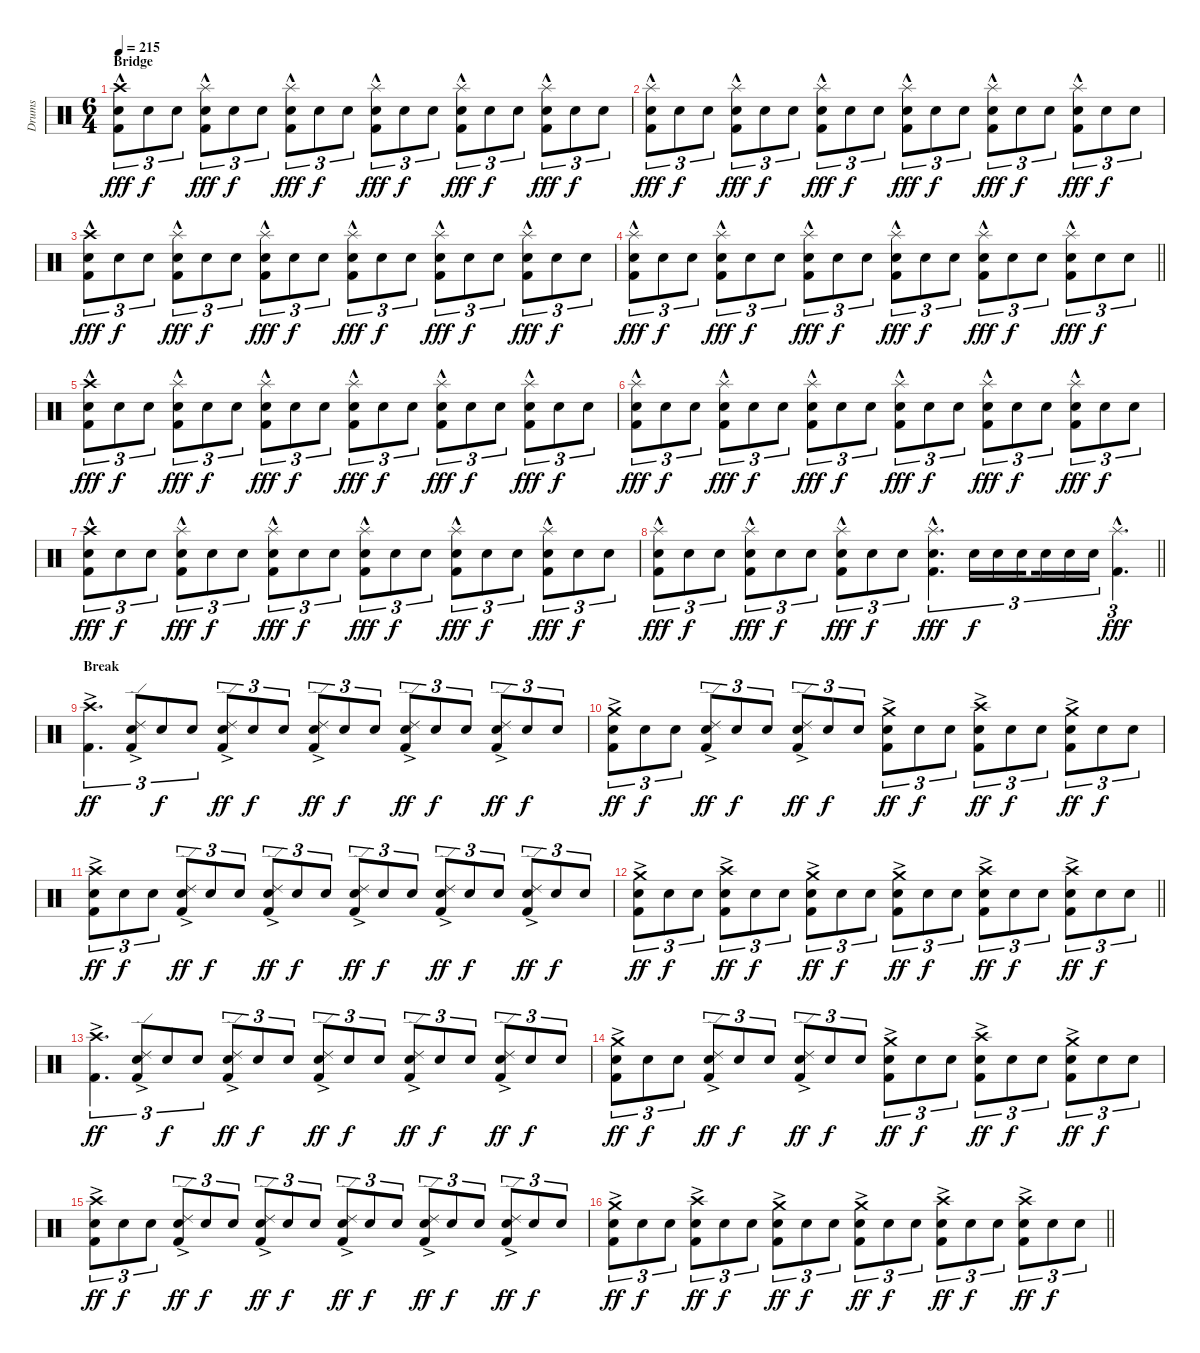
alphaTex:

\track ("Drums" "Drums") {instrument percussion}
\staff {score}
\articulation defaults
\ts (6 4)
\section ("" "Bridge")
\tempo 215
\clef neutral
\ks c
("Kick (hit) 2"{hac} "Snare (hit) 2" "Crash high (hit)").8{tu (3 2) dy fff} "Snare (hit) 2".8{tu (3 2) dy f} "Snare (hit) 2".8{tu (3 2)} ("Kick (hit) 2"{hac} "Snare (hit) 2" "Splash (hit)").8{tu (3 2) dy fff} "Snare (hit) 2".8{tu (3 2) dy f} "Snare (hit) 2".8{tu (3 2)} ("Kick (hit) 2"{hac} "Snare (hit) 2" "Splash (hit)").8{tu (3 2) dy fff} "Snare (hit) 2".8{tu (3 2) dy f} "Snare (hit) 2".8{tu (3 2)} ("Kick (hit) 2"{hac} "Snare (hit) 2" "Splash (hit)").8{tu (3 2) dy fff} "Snare (hit) 2".8{tu (3 2) dy f} "Snare (hit) 2".8{tu (3 2)} ("Kick (hit) 2"{hac} "Snare (hit) 2" "Splash (hit)").8{tu (3 2) dy fff} "Snare (hit) 2".8{tu (3 2) dy f} "Snare (hit) 2".8{tu (3 2)} ("Kick (hit) 2"{hac} "Snare (hit) 2" "Splash (hit)").8{tu (3 2) dy fff} "Snare (hit) 2".8{tu (3 2) dy f} "Snare (hit) 2".8{tu (3 2)} |
("Kick (hit) 2"{hac} "Snare (hit) 2" "Splash (hit)").8{tu (3 2) dy fff} "Snare (hit) 2".8{tu (3 2) dy f} "Snare (hit) 2".8{tu (3 2)} ("Kick (hit) 2"{hac} "Snare (hit) 2" "Splash (hit)").8{tu (3 2) dy fff} "Snare (hit) 2".8{tu (3 2) dy f} "Snare (hit) 2".8{tu (3 2)} ("Kick (hit) 2"{hac} "Snare (hit) 2" "Splash (hit)").8{tu (3 2) dy fff} "Snare (hit) 2".8{tu (3 2) dy f} "Snare (hit) 2".8{tu (3 2)} ("Kick (hit) 2"{hac} "Snare (hit) 2" "Splash (hit)").8{tu (3 2) dy fff} "Snare (hit) 2".8{tu (3 2) dy f} "Snare (hit) 2".8{tu (3 2)} ("Kick (hit) 2"{hac} "Snare (hit) 2" "Splash (hit)").8{tu (3 2) dy fff} "Snare (hit) 2".8{tu (3 2) dy f} "Snare (hit) 2".8{tu (3 2)} ("Kick (hit) 2"{hac} "Snare (hit) 2" "Splash (hit)").8{tu (3 2) dy fff} "Snare (hit) 2".8{tu (3 2) dy f} "Snare (hit) 2".8{tu (3 2)} |
("Kick (hit) 2"{hac} "Snare (hit) 2" "Crash high (hit)").8{tu (3 2) dy fff} "Snare (hit) 2".8{tu (3 2) dy f} "Snare (hit) 2".8{tu (3 2)} ("Kick (hit) 2"{hac} "Snare (hit) 2" "Splash (hit)").8{tu (3 2) dy fff} "Snare (hit) 2".8{tu (3 2) dy f} "Snare (hit) 2".8{tu (3 2)} ("Kick (hit) 2"{hac} "Snare (hit) 2" "Splash (hit)").8{tu (3 2) dy fff} "Snare (hit) 2".8{tu (3 2) dy f} "Snare (hit) 2".8{tu (3 2)} ("Kick (hit) 2"{hac} "Snare (hit) 2" "Splash (hit)").8{tu (3 2) dy fff} "Snare (hit) 2".8{tu (3 2) dy f} "Snare (hit) 2".8{tu (3 2)} ("Kick (hit) 2"{hac} "Snare (hit) 2" "Splash (hit)").8{tu (3 2) dy fff} "Snare (hit) 2".8{tu (3 2) dy f} "Snare (hit) 2".8{tu (3 2)} ("Kick (hit) 2"{hac} "Snare (hit) 2" "Splash (hit)").8{tu (3 2) dy fff} "Snare (hit) 2".8{tu (3 2) dy f} "Snare (hit) 2".8{tu (3 2)} |
\barLineRight lightlight
("Kick (hit) 2"{hac} "Snare (hit) 2" "Splash (hit)").8{tu (3 2) dy fff} "Snare (hit) 2".8{tu (3 2) dy f} "Snare (hit) 2".8{tu (3 2)} ("Kick (hit) 2"{hac} "Snare (hit) 2" "Splash (hit)").8{tu (3 2) dy fff} "Snare (hit) 2".8{tu (3 2) dy f} "Snare (hit) 2".8{tu (3 2)} ("Kick (hit) 2"{hac} "Snare (hit) 2" "Splash (hit)").8{tu (3 2) dy fff} "Snare (hit) 2".8{tu (3 2) dy f} "Snare (hit) 2".8{tu (3 2)} ("Kick (hit) 2"{hac} "Snare (hit) 2" "Splash (hit)").8{tu (3 2) dy fff} "Snare (hit) 2".8{tu (3 2) dy f} "Snare (hit) 2".8{tu (3 2)} ("Kick (hit) 2"{hac} "Snare (hit) 2" "Splash (hit)").8{tu (3 2) dy fff} "Snare (hit) 2".8{tu (3 2) dy f} "Snare (hit) 2".8{tu (3 2)} ("Kick (hit) 2"{hac} "Snare (hit) 2" "Splash (hit)").8{tu (3 2) dy fff} "Snare (hit) 2".8{tu (3 2) dy f} "Snare (hit) 2".8{tu (3 2)} |
\section ("" "")
("Kick (hit) 2"{hac} "Snare (hit) 2" "Crash high (hit)").8{tu (3 2) dy fff} "Snare (hit) 2".8{tu (3 2) dy f} "Snare (hit) 2".8{tu (3 2)} ("Kick (hit) 2"{hac} "Snare (hit) 2" "Splash (hit)").8{tu (3 2) dy fff} "Snare (hit) 2".8{tu (3 2) dy f} "Snare (hit) 2".8{tu (3 2)} ("Kick (hit) 2"{hac} "Snare (hit) 2" "Splash (hit)").8{tu (3 2) dy fff} "Snare (hit) 2".8{tu (3 2) dy f} "Snare (hit) 2".8{tu (3 2)} ("Kick (hit) 2"{hac} "Snare (hit) 2" "Splash (hit)").8{tu (3 2) dy fff} "Snare (hit) 2".8{tu (3 2) dy f} "Snare (hit) 2".8{tu (3 2)} ("Kick (hit) 2"{hac} "Snare (hit) 2" "Splash (hit)").8{tu (3 2) dy fff} "Snare (hit) 2".8{tu (3 2) dy f} "Snare (hit) 2".8{tu (3 2)} ("Kick (hit) 2"{hac} "Snare (hit) 2" "Splash (hit)").8{tu (3 2) dy fff} "Snare (hit) 2".8{tu (3 2) dy f} "Snare (hit) 2".8{tu (3 2)} |
("Kick (hit) 2"{hac} "Snare (hit) 2" "Splash (hit)").8{tu (3 2) dy fff} "Snare (hit) 2".8{tu (3 2) dy f} "Snare (hit) 2".8{tu (3 2)} ("Kick (hit) 2"{hac} "Snare (hit) 2" "Splash (hit)").8{tu (3 2) dy fff} "Snare (hit) 2".8{tu (3 2) dy f} "Snare (hit) 2".8{tu (3 2)} ("Kick (hit) 2"{hac} "Snare (hit) 2" "Splash (hit)").8{tu (3 2) dy fff} "Snare (hit) 2".8{tu (3 2) dy f} "Snare (hit) 2".8{tu (3 2)} ("Kick (hit) 2"{hac} "Snare (hit) 2" "Splash (hit)").8{tu (3 2) dy fff} "Snare (hit) 2".8{tu (3 2) dy f} "Snare (hit) 2".8{tu (3 2)} ("Kick (hit) 2"{hac} "Snare (hit) 2" "Splash (hit)").8{tu (3 2) dy fff} "Snare (hit) 2".8{tu (3 2) dy f} "Snare (hit) 2".8{tu (3 2)} ("Kick (hit) 2"{hac} "Snare (hit) 2" "Splash (hit)").8{tu (3 2) dy fff} "Snare (hit) 2".8{tu (3 2) dy f} "Snare (hit) 2".8{tu (3 2)} |
("Kick (hit) 2"{hac} "Snare (hit) 2" "Crash high (hit)").8{tu (3 2) dy fff} "Snare (hit) 2".8{tu (3 2) dy f} "Snare (hit) 2".8{tu (3 2)} ("Kick (hit) 2"{hac} "Snare (hit) 2" "Splash (hit)").8{tu (3 2) dy fff} "Snare (hit) 2".8{tu (3 2) dy f} "Snare (hit) 2".8{tu (3 2)} ("Kick (hit) 2"{hac} "Snare (hit) 2" "Splash (hit)").8{tu (3 2) dy fff} "Snare (hit) 2".8{tu (3 2) dy f} "Snare (hit) 2".8{tu (3 2)} ("Kick (hit) 2"{hac} "Snare (hit) 2" "Splash (hit)").8{tu (3 2) dy fff} "Snare (hit) 2".8{tu (3 2) dy f} "Snare (hit) 2".8{tu (3 2)} ("Kick (hit) 2"{hac} "Snare (hit) 2" "Splash (hit)").8{tu (3 2) dy fff} "Snare (hit) 2".8{tu (3 2) dy f} "Snare (hit) 2".8{tu (3 2)} ("Kick (hit) 2"{hac} "Snare (hit) 2" "Splash (hit)").8{tu (3 2) dy fff} "Snare (hit) 2".8{tu (3 2) dy f} "Snare (hit) 2".8{tu (3 2)} |
\barLineRight lightlight
("Kick (hit) 2"{hac} "Snare (hit) 2" "Splash (hit)").8{tu (3 2) dy fff} "Snare (hit) 2".8{tu (3 2) dy f} "Snare (hit) 2".8{tu (3 2)} ("Kick (hit) 2"{hac} "Snare (hit) 2" "Splash (hit)").8{tu (3 2) dy fff} "Snare (hit) 2".8{tu (3 2) dy f} "Snare (hit) 2".8{tu (3 2)} ("Kick (hit) 2"{hac} "Snare (hit) 2" "Splash (hit)").8{tu (3 2) dy fff} "Snare (hit) 2".8{tu (3 2) dy f} "Snare (hit) 2".8{tu (3 2)} ("Kick (hit) 2"{hac} "Snare (hit) 2" "Splash (hit)").4{d tu (3 2) dy fff} "Snare (hit) 2".16{tu (3 2) dy f} "Snare (hit) 2".16{tu (3 2)} "Snare (hit) 2".16{tu (3 2) beam splitsecondary} "Snare (hit) 2".16{tu (3 2)} "Snare (hit) 2".16{tu (3 2)} "Snare (hit) 2".16{tu (3 2)} ("Kick (hit) 2"{hac} "Splash (hit)").4{d tu (3 2) dy fff} |
\section ("" "Break")
("Kick (hit) 2"{ac} "Crash high (hit)").4{d tu (3 2) dy ff} ("Kick (hit) 2"{ac} "Snare (hit) 2" "Ride (edge) 2").8{tu (3 2)} "Snare (hit) 2".8{tu (3 2) dy f} "Snare (hit) 2".8{tu (3 2)} ("Kick (hit) 2"{ac} "Snare (hit) 2" "Ride (edge) 2").8{tu (3 2) dy ff} "Snare (hit) 2".8{tu (3 2) dy f} "Snare (hit) 2".8{tu (3 2)} ("Kick (hit) 2"{ac} "Snare (hit) 2" "Ride (edge) 2").8{tu (3 2) dy ff} "Snare (hit) 2".8{tu (3 2) dy f} "Snare (hit) 2".8{tu (3 2)} ("Kick (hit) 2"{ac} "Snare (hit) 2" "Ride (edge) 2").8{tu (3 2) dy ff} "Snare (hit) 2".8{tu (3 2) dy f} "Snare (hit) 2".8{tu (3 2)} ("Kick (hit) 2"{ac} "Snare (hit) 2" "Ride (edge) 2").8{tu (3 2) dy ff} "Snare (hit) 2".8{tu (3 2) dy f} "Snare (hit) 2".8{tu (3 2)} |
("Kick (hit) 2"{ac} "Snare (hit) 2" "Crash medium (hit)").8{tu (3 2) dy ff} "Snare (hit) 2".8{tu (3 2) dy f} "Snare (hit) 2".8{tu (3 2)} ("Kick (hit) 2"{ac} "Snare (hit) 2" "Ride (edge) 2").8{tu (3 2) dy ff} "Snare (hit) 2".8{tu (3 2) dy f} "Snare (hit) 2".8{tu (3 2)} ("Kick (hit) 2"{ac} "Snare (hit) 2" "Ride (edge) 2").8{tu (3 2) dy ff} "Snare (hit) 2".8{tu (3 2) dy f} "Snare (hit) 2".8{tu (3 2)} ("Kick (hit) 2"{ac} "Snare (hit) 2" "Crash medium (hit)").8{tu (3 2) dy ff} "Snare (hit) 2".8{tu (3 2) dy f} "Snare (hit) 2".8{tu (3 2)} ("Kick (hit) 2"{ac} "Snare (hit) 2" "Crash high (hit)").8{tu (3 2) dy ff} "Snare (hit) 2".8{tu (3 2) dy f} "Snare (hit) 2".8{tu (3 2)} ("Kick (hit) 2"{ac} "Snare (hit) 2" "Crash medium (hit)").8{tu (3 2) dy ff} "Snare (hit) 2".8{tu (3 2) dy f} "Snare (hit) 2".8{tu (3 2)} |
("Kick (hit) 2"{ac} "Snare (hit) 2" "Crash high (hit)").8{tu (3 2) dy ff} "Snare (hit) 2".8{tu (3 2) dy f} "Snare (hit) 2".8{tu (3 2)} ("Kick (hit) 2"{ac} "Snare (hit) 2" "Ride (edge) 2").8{tu (3 2) dy ff} "Snare (hit) 2".8{tu (3 2) dy f} "Snare (hit) 2".8{tu (3 2)} ("Kick (hit) 2"{ac} "Snare (hit) 2" "Ride (edge) 2").8{tu (3 2) dy ff} "Snare (hit) 2".8{tu (3 2) dy f} "Snare (hit) 2".8{tu (3 2)} ("Kick (hit) 2"{ac} "Snare (hit) 2" "Ride (edge) 2").8{tu (3 2) dy ff} "Snare (hit) 2".8{tu (3 2) dy f} "Snare (hit) 2".8{tu (3 2)} ("Kick (hit) 2"{ac} "Snare (hit) 2" "Ride (edge) 2").8{tu (3 2) dy ff} "Snare (hit) 2".8{tu (3 2) dy f} "Snare (hit) 2".8{tu (3 2)} ("Kick (hit) 2"{ac} "Snare (hit) 2" "Ride (edge) 2").8{tu (3 2) dy ff} "Snare (hit) 2".8{tu (3 2) dy f} "Snare (hit) 2".8{tu (3 2)} |
\barLineRight lightlight
("Kick (hit) 2"{ac} "Snare (hit) 2" "Crash medium (hit)").8{tu (3 2) dy ff} "Snare (hit) 2".8{tu (3 2) dy f} "Snare (hit) 2".8{tu (3 2)} ("Kick (hit) 2"{ac} "Snare (hit) 2" "Crash high (hit)").8{tu (3 2) dy ff} "Snare (hit) 2".8{tu (3 2) dy f} "Snare (hit) 2".8{tu (3 2)} ("Kick (hit) 2"{ac} "Snare (hit) 2" "Crash medium (hit)").8{tu (3 2) dy ff} "Snare (hit) 2".8{tu (3 2) dy f} "Snare (hit) 2".8{tu (3 2)} ("Kick (hit) 2"{ac} "Snare (hit) 2" "Crash medium (hit)").8{tu (3 2) dy ff} "Snare (hit) 2".8{tu (3 2) dy f} "Snare (hit) 2".8{tu (3 2)} ("Kick (hit) 2"{ac} "Snare (hit) 2" "Crash high (hit)").8{tu (3 2) dy ff} "Snare (hit) 2".8{tu (3 2) dy f} "Snare (hit) 2".8{tu (3 2)} ("Kick (hit) 2"{ac} "Snare (hit) 2" "Crash high (hit)").8{tu (3 2) dy ff} "Snare (hit) 2".8{tu (3 2) dy f} "Snare (hit) 2".8{tu (3 2)} |
\section ("" "")
("Kick (hit) 2"{ac} "Crash high (hit)").4{d tu (3 2) dy ff} ("Kick (hit) 2"{ac} "Snare (hit) 2" "Ride (edge) 2").8{tu (3 2)} "Snare (hit) 2".8{tu (3 2) dy f} "Snare (hit) 2".8{tu (3 2)} ("Kick (hit) 2"{ac} "Snare (hit) 2" "Ride (edge) 2").8{tu (3 2) dy ff} "Snare (hit) 2".8{tu (3 2) dy f} "Snare (hit) 2".8{tu (3 2)} ("Kick (hit) 2"{ac} "Snare (hit) 2" "Ride (edge) 2").8{tu (3 2) dy ff} "Snare (hit) 2".8{tu (3 2) dy f} "Snare (hit) 2".8{tu (3 2)} ("Kick (hit) 2"{ac} "Snare (hit) 2" "Ride (edge) 2").8{tu (3 2) dy ff} "Snare (hit) 2".8{tu (3 2) dy f} "Snare (hit) 2".8{tu (3 2)} ("Kick (hit) 2"{ac} "Snare (hit) 2" "Ride (edge) 2").8{tu (3 2) dy ff} "Snare (hit) 2".8{tu (3 2) dy f} "Snare (hit) 2".8{tu (3 2)} |
("Kick (hit) 2"{ac} "Snare (hit) 2" "Crash medium (hit)").8{tu (3 2) dy ff} "Snare (hit) 2".8{tu (3 2) dy f} "Snare (hit) 2".8{tu (3 2)} ("Kick (hit) 2"{ac} "Snare (hit) 2" "Ride (edge) 2").8{tu (3 2) dy ff} "Snare (hit) 2".8{tu (3 2) dy f} "Snare (hit) 2".8{tu (3 2)} ("Kick (hit) 2"{ac} "Snare (hit) 2" "Ride (edge) 2").8{tu (3 2) dy ff} "Snare (hit) 2".8{tu (3 2) dy f} "Snare (hit) 2".8{tu (3 2)} ("Kick (hit) 2"{ac} "Snare (hit) 2" "Crash medium (hit)").8{tu (3 2) dy ff} "Snare (hit) 2".8{tu (3 2) dy f} "Snare (hit) 2".8{tu (3 2)} ("Kick (hit) 2"{ac} "Snare (hit) 2" "Crash high (hit)").8{tu (3 2) dy ff} "Snare (hit) 2".8{tu (3 2) dy f} "Snare (hit) 2".8{tu (3 2)} ("Kick (hit) 2"{ac} "Snare (hit) 2" "Crash medium (hit)").8{tu (3 2) dy ff} "Snare (hit) 2".8{tu (3 2) dy f} "Snare (hit) 2".8{tu (3 2)} |
("Kick (hit) 2"{ac} "Snare (hit) 2" "Crash high (hit)").8{tu (3 2) dy ff} "Snare (hit) 2".8{tu (3 2) dy f} "Snare (hit) 2".8{tu (3 2)} ("Kick (hit) 2"{ac} "Snare (hit) 2" "Ride (edge) 2").8{tu (3 2) dy ff} "Snare (hit) 2".8{tu (3 2) dy f} "Snare (hit) 2".8{tu (3 2)} ("Kick (hit) 2"{ac} "Snare (hit) 2" "Ride (edge) 2").8{tu (3 2) dy ff} "Snare (hit) 2".8{tu (3 2) dy f} "Snare (hit) 2".8{tu (3 2)} ("Kick (hit) 2"{ac} "Snare (hit) 2" "Ride (edge) 2").8{tu (3 2) dy ff} "Snare (hit) 2".8{tu (3 2) dy f} "Snare (hit) 2".8{tu (3 2)} ("Kick (hit) 2"{ac} "Snare (hit) 2" "Ride (edge) 2").8{tu (3 2) dy ff} "Snare (hit) 2".8{tu (3 2) dy f} "Snare (hit) 2".8{tu (3 2)} ("Kick (hit) 2"{ac} "Snare (hit) 2" "Ride (edge) 2").8{tu (3 2) dy ff} "Snare (hit) 2".8{tu (3 2) dy f} "Snare (hit) 2".8{tu (3 2)} |
\barLineRight lightlight
("Kick (hit) 2"{ac} "Snare (hit) 2" "Crash medium (hit)").8{tu (3 2) dy ff} "Snare (hit) 2".8{tu (3 2) dy f} "Snare (hit) 2".8{tu (3 2)} ("Kick (hit) 2"{ac} "Snare (hit) 2" "Crash high (hit)").8{tu (3 2) dy ff} "Snare (hit) 2".8{tu (3 2) dy f} "Snare (hit) 2".8{tu (3 2)} ("Kick (hit) 2"{ac} "Snare (hit) 2" "Crash medium (hit)").8{tu (3 2) dy ff} "Snare (hit) 2".8{tu (3 2) dy f} "Snare (hit) 2".8{tu (3 2)} ("Kick (hit) 2"{ac} "Snare (hit) 2" "Crash medium (hit)").8{tu (3 2) dy ff} "Snare (hit) 2".8{tu (3 2) dy f} "Snare (hit) 2".8{tu (3 2)} ("Kick (hit) 2"{ac} "Snare (hit) 2" "Crash high (hit)").8{tu (3 2) dy ff} "Snare (hit) 2".8{tu (3 2) dy f} "Snare (hit) 2".8{tu (3 2)} ("Kick (hit) 2"{ac} "Snare (hit) 2" "Crash high (hit)").8{tu (3 2) dy ff} "Snare (hit) 2".8{tu (3 2) dy f} "Snare (hit) 2".8{tu (3 2)}
